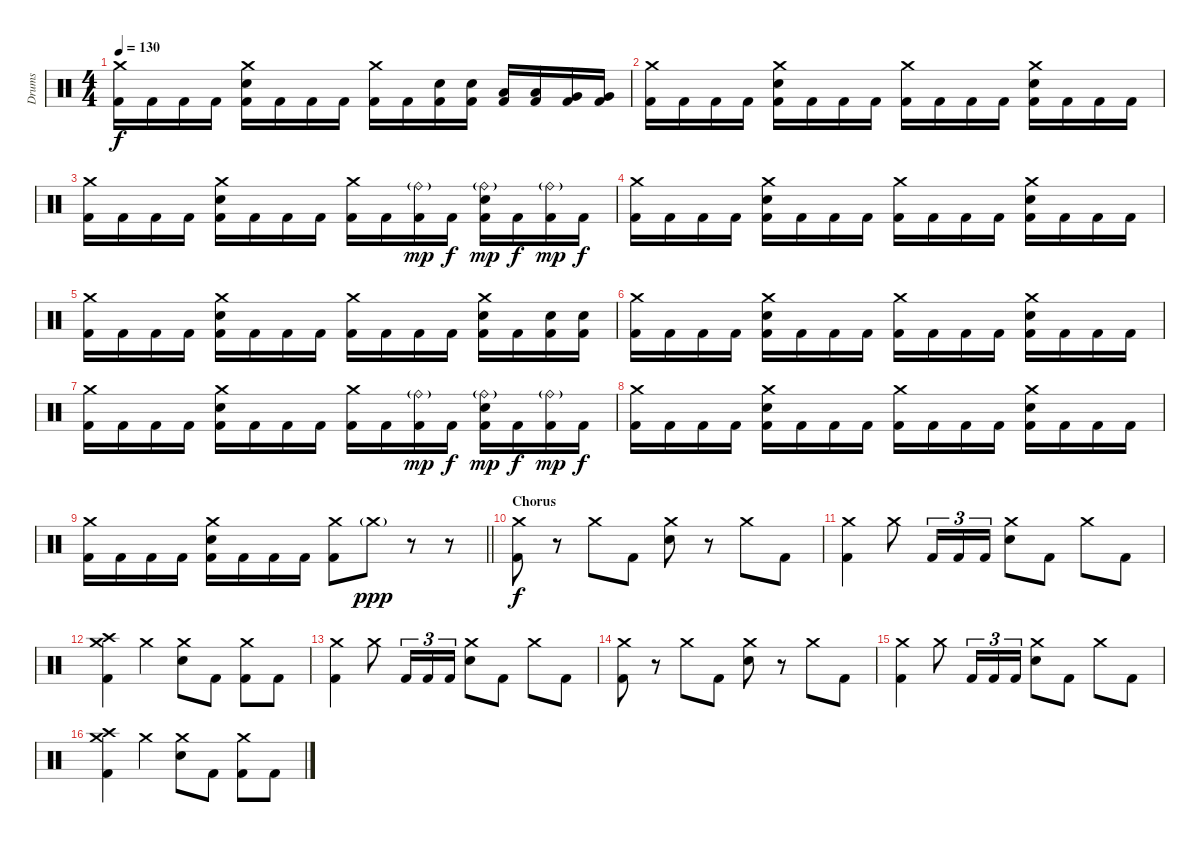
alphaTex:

\track ("Drums" "Drums") {instrument percussion}
\staff {score}
\articulation defaults
\ts (4 4)
\tempo 130
\clef neutral
\ks c
("Crash medium (hit)" "Kick (hit) 2").16{dy f} "Kick (hit) 2".16 "Kick (hit) 2".16 "Kick (hit) 2".16 ("Crash medium (hit)" "Electric Snare (hit)" "Kick (hit) 2").16 "Kick (hit) 2".16 "Kick (hit) 2".16 "Kick (hit) 2".16 ("Crash medium (hit)" "Kick (hit) 2").16 "Kick (hit) 2".16 ("Electric Snare (hit)" "Kick (hit) 2").16 ("Electric Snare (hit)" "Kick (hit) 2").16 ("Low Tom (hit)" "Kick (hit) 2").16 ("Low Tom (hit)" "Kick (hit) 2").16 ("Very Low Tom (hit)" "Kick (hit) 2").16 ("Very Low Tom (hit)" "Kick (hit) 2").16 |
("Crash medium (hit)" "Kick (hit) 2").16 "Kick (hit) 2".16 "Kick (hit) 2".16 "Kick (hit) 2".16 ("Crash medium (hit)" "Electric Snare (hit)" "Kick (hit) 2").16 "Kick (hit) 2".16 "Kick (hit) 2".16 "Kick (hit) 2".16 ("Crash medium (hit)" "Kick (hit) 2").16 "Kick (hit) 2".16 "Kick (hit) 2".16 "Kick (hit) 2".16 ("Crash medium (hit)" "Electric Snare (hit)" "Kick (hit) 2").16 "Kick (hit) 2".16 "Kick (hit) 2".16 "Kick (hit) 2".16 |
("Crash medium (hit)" "Kick (hit) 2").16 "Kick (hit) 2".16 "Kick (hit) 2".16 "Kick (hit) 2".16 ("Crash medium (hit)" "Electric Snare (hit)" "Kick (hit) 2").16 "Kick (hit) 2".16 "Kick (hit) 2".16 "Kick (hit) 2".16 ("Crash medium (hit)" "Kick (hit) 2").16 "Kick (hit) 2".16 ("Ride (bell)"{g} "Kick (hit) 2").16{dy mp} "Kick (hit) 2".16{dy f} ("Ride (bell)"{g} "Electric Snare (hit)" "Kick (hit) 2").16{dy mp} "Kick (hit) 2".16{dy f} ("Ride (bell)"{g} "Kick (hit) 2").16{dy mp} "Kick (hit) 2".16{dy f} |
("Crash medium (hit)" "Kick (hit) 2").16 "Kick (hit) 2".16 "Kick (hit) 2".16 "Kick (hit) 2".16 ("Crash medium (hit)" "Electric Snare (hit)" "Kick (hit) 2").16 "Kick (hit) 2".16 "Kick (hit) 2".16 "Kick (hit) 2".16 ("Crash medium (hit)" "Kick (hit) 2").16 "Kick (hit) 2".16 "Kick (hit) 2".16 "Kick (hit) 2".16 ("Crash medium (hit)" "Electric Snare (hit)" "Kick (hit) 2").16 "Kick (hit) 2".16 "Kick (hit) 2".16 "Kick (hit) 2".16 |
("Crash medium (hit)" "Kick (hit) 2").16 "Kick (hit) 2".16 "Kick (hit) 2".16 "Kick (hit) 2".16 ("Crash medium (hit)" "Electric Snare (hit)" "Kick (hit) 2").16 "Kick (hit) 2".16 "Kick (hit) 2".16 "Kick (hit) 2".16 ("Crash medium (hit)" "Kick (hit) 2").16 "Kick (hit) 2".16 "Kick (hit) 2".16 "Kick (hit) 2".16 ("Crash medium (hit)" "Electric Snare (hit)" "Kick (hit) 2").16 "Kick (hit) 2".16 ("Electric Snare (hit)" "Kick (hit) 2").16 ("Electric Snare (hit)" "Kick (hit) 2").16 |
("Crash medium (hit)" "Kick (hit) 2").16 "Kick (hit) 2".16 "Kick (hit) 2".16 "Kick (hit) 2".16 ("Crash medium (hit)" "Electric Snare (hit)" "Kick (hit) 2").16 "Kick (hit) 2".16 "Kick (hit) 2".16 "Kick (hit) 2".16 ("Crash medium (hit)" "Kick (hit) 2").16 "Kick (hit) 2".16 "Kick (hit) 2".16 "Kick (hit) 2".16 ("Crash medium (hit)" "Electric Snare (hit)" "Kick (hit) 2").16 "Kick (hit) 2".16 "Kick (hit) 2".16 "Kick (hit) 2".16 |
("Crash medium (hit)" "Kick (hit) 2").16 "Kick (hit) 2".16 "Kick (hit) 2".16 "Kick (hit) 2".16 ("Crash medium (hit)" "Electric Snare (hit)" "Kick (hit) 2").16 "Kick (hit) 2".16 "Kick (hit) 2".16 "Kick (hit) 2".16 ("Crash medium (hit)" "Kick (hit) 2").16 "Kick (hit) 2".16 ("Ride (bell)"{g} "Kick (hit) 2").16{dy mp} "Kick (hit) 2".16{dy f} ("Ride (bell)"{g} "Electric Snare (hit)" "Kick (hit) 2").16{dy mp} "Kick (hit) 2".16{dy f} ("Ride (bell)"{g} "Kick (hit) 2").16{dy mp} "Kick (hit) 2".16{dy f} |
("Crash medium (hit)" "Kick (hit) 2").16 "Kick (hit) 2".16 "Kick (hit) 2".16 "Kick (hit) 2".16 ("Crash medium (hit)" "Electric Snare (hit)" "Kick (hit) 2").16 "Kick (hit) 2".16 "Kick (hit) 2".16 "Kick (hit) 2".16 ("Crash medium (hit)" "Kick (hit) 2").16 "Kick (hit) 2".16 "Kick (hit) 2".16 "Kick (hit) 2".16 ("Crash medium (hit)" "Electric Snare (hit)" "Kick (hit) 2").16 "Kick (hit) 2".16 "Kick (hit) 2".16 "Kick (hit) 2".16 |
\barLineRight lightlight
("Crash medium (hit)" "Kick (hit) 2").16 "Kick (hit) 2".16 "Kick (hit) 2".16 "Kick (hit) 2".16 ("Crash medium (hit)" "Electric Snare (hit)" "Kick (hit) 2").16 "Kick (hit) 2".16 "Kick (hit) 2".16 "Kick (hit) 2".16 ("Crash medium (hit)" "Kick (hit) 2").8 "Crash medium (hit)"{g}.8{dy ppp} r.8 r.8 |
\section ("" "Chorus")
("Crash medium (hit)" "Kick (hit) 2").8{dy f} r.8 "Crash medium (hit)".8 "Kick (hit) 2".8 ("Crash medium (hit)" "Electric Snare (hit)").8 r.8 "Crash medium (hit)".8 "Kick (hit) 2".8 |
("Crash medium (hit)" "Kick (hit) 2").4 "Crash medium (hit)".8 "Kick (hit) 2".16{tu (3 2)} "Kick (hit) 2".16{tu (3 2)} "Kick (hit) 2".16{tu (3 2)} ("Crash medium (hit)" "Electric Snare (hit)").8 "Kick (hit) 2".8 "Crash medium (hit)".8 "Kick (hit) 2".8 |
("Crash high (hit)" "Crash medium (hit)" "Kick (hit) 2").4 "Crash medium (hit)".4 ("Crash medium (hit)" "Electric Snare (hit)").8 "Kick (hit) 2".8 ("Crash medium (hit)" "Kick (hit) 2").8 "Kick (hit) 2".8 |
("Crash medium (hit)" "Kick (hit) 2").4 "Crash medium (hit)".8 "Kick (hit) 2".16{tu (3 2)} "Kick (hit) 2".16{tu (3 2)} "Kick (hit) 2".16{tu (3 2)} ("Crash medium (hit)" "Electric Snare (hit)").8 "Kick (hit) 2".8 "Crash medium (hit)".8 "Kick (hit) 2".8 |
("Crash medium (hit)" "Kick (hit) 2").8 r.8 "Crash medium (hit)".8 "Kick (hit) 2".8 ("Crash medium (hit)" "Electric Snare (hit)").8 r.8 "Crash medium (hit)".8 "Kick (hit) 2".8 |
("Crash medium (hit)" "Kick (hit) 2").4 "Crash medium (hit)".8 "Kick (hit) 2".16{tu (3 2)} "Kick (hit) 2".16{tu (3 2)} "Kick (hit) 2".16{tu (3 2)} ("Crash medium (hit)" "Electric Snare (hit)").8 "Kick (hit) 2".8 "Crash medium (hit)".8 "Kick (hit) 2".8 |
("Crash high (hit)" "Crash medium (hit)" "Kick (hit) 2").4 "Crash medium (hit)".4 ("Crash medium (hit)" "Electric Snare (hit)").8 "Kick (hit) 2".8 ("Crash medium (hit)" "Kick (hit) 2").8 "Kick (hit) 2".8
